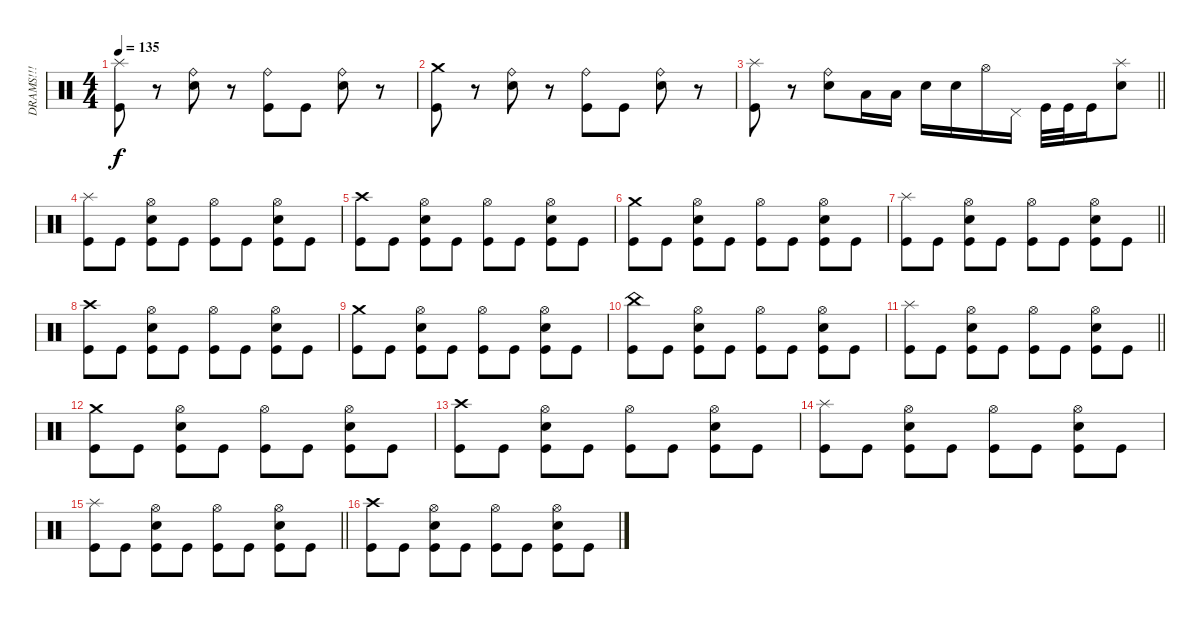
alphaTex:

\track ("DRAMS!!!" "DRAMS!!!") {instrument percussion}
\staff {score}
\articulation defaults
\ts (4 4)
\tempo 135
\clef neutral
\ks c
("Kick (hit)" "Splash (hit)").8{dy f} r.8 ("Electric Snare (hit)" "Ride (bell)").8 r.8 ("Kick (hit)" "Ride (bell)").8 "Kick (hit)".8 ("Electric Snare (hit)" "Ride (bell)").8 r.8 |
("Kick (hit)" "Crash medium (hit)").8 r.8 ("Electric Snare (hit)" "Ride (bell)").8 r.8 ("Kick (hit)" "Ride (bell)").8 "Kick (hit)".8 ("Electric Snare (hit)" "Ride (bell)").8 r.8 |
\barLineRight lightlight
("Kick (hit)" "Splash (hit)").8 r.8 ("Electric Snare (hit)" "Ride (bell)").8 "Low Tom (hit)".16 "Low Tom (hit)".16 "Electric Snare (hit)".16 "Electric Snare (hit)".16 "Hi-Hat (open)".16 "Pedal Hi-Hat (hit)".16 "Kick (hit)".32 "Kick (hit)".32 "Kick (hit)".16 ("Electric Snare (hit)" "Splash (hit)").8 |
("Kick (hit)" "Splash (hit)").8 "Kick (hit)".8 ("Kick (hit)" "Electric Snare (hit)" "Hi-Hat (open)").8 "Kick (hit)".8 ("Kick (hit)" "Hi-Hat (open)").8 "Kick (hit)".8 ("Kick (hit)" "Electric Snare (hit)" "Hi-Hat (open)").8 "Kick (hit)".8 |
("Kick (hit)" "Crash high (hit)").8 "Kick (hit)".8 ("Kick (hit)" "Electric Snare (hit)" "Hi-Hat (open)").8 "Kick (hit)".8 ("Kick (hit)" "Hi-Hat (open)").8 "Kick (hit)".8 ("Kick (hit)" "Electric Snare (hit)" "Hi-Hat (open)").8 "Kick (hit)".8 |
("Kick (hit)" "Crash medium (hit)").8 "Kick (hit)".8 ("Kick (hit)" "Electric Snare (hit)" "Hi-Hat (open)").8 "Kick (hit)".8 ("Kick (hit)" "Hi-Hat (open)").8 "Kick (hit)".8 ("Kick (hit)" "Electric Snare (hit)" "Hi-Hat (open)").8 "Kick (hit)".8 |
\barLineRight lightlight
("Kick (hit)" "Splash (hit)").8 "Kick (hit)".8 ("Kick (hit)" "Electric Snare (hit)" "Hi-Hat (open)").8 "Kick (hit)".8 ("Kick (hit)" "Hi-Hat (open)").8 "Kick (hit)".8 ("Kick (hit)" "Electric Snare (hit)" "Hi-Hat (open)").8 "Kick (hit)".8 |
("Kick (hit)" "Crash high (hit)").8 "Kick (hit)".8 ("Kick (hit)" "Electric Snare (hit)" "Hi-Hat (open)").8 "Kick (hit)".8 ("Kick (hit)" "Hi-Hat (open)").8 "Kick (hit)".8 ("Kick (hit)" "Electric Snare (hit)" "Hi-Hat (open)").8 "Kick (hit)".8 |
("Kick (hit)" "Crash medium (hit)").8 "Kick (hit)".8 ("Kick (hit)" "Electric Snare (hit)" "Hi-Hat (open)").8 "Kick (hit)".8 ("Kick (hit)" "Hi-Hat (open)").8 "Kick (hit)".8 ("Kick (hit)" "Electric Snare (hit)" "Hi-Hat (open)").8 "Kick (hit)".8 |
("Kick (hit)" "China (hit)").8 "Kick (hit)".8 ("Kick (hit)" "Electric Snare (hit)" "Hi-Hat (open)").8 "Kick (hit)".8 ("Kick (hit)" "Hi-Hat (open)").8 "Kick (hit)".8 ("Kick (hit)" "Electric Snare (hit)" "Hi-Hat (open)").8 "Kick (hit)".8 |
\barLineRight lightlight
("Kick (hit)" "Splash (hit)").8 "Kick (hit)".8 ("Kick (hit)" "Electric Snare (hit)" "Hi-Hat (open)").8 "Kick (hit)".8 ("Kick (hit)" "Hi-Hat (open)").8 "Kick (hit)".8 ("Kick (hit)" "Electric Snare (hit)" "Hi-Hat (open)").8 "Kick (hit)".8 |
("Kick (hit)" "Crash medium (hit)").8 "Kick (hit)".8 ("Kick (hit)" "Electric Snare (hit)" "Hi-Hat (open)").8 "Kick (hit)".8 ("Kick (hit)" "Hi-Hat (open)").8 "Kick (hit)".8 ("Kick (hit)" "Electric Snare (hit)" "Hi-Hat (open)").8 "Kick (hit)".8 |
("Kick (hit)" "Crash high (hit)").8 "Kick (hit)".8 ("Kick (hit)" "Electric Snare (hit)" "Hi-Hat (open)").8 "Kick (hit)".8 ("Kick (hit)" "Hi-Hat (open)").8 "Kick (hit)".8 ("Kick (hit)" "Electric Snare (hit)" "Hi-Hat (open)").8 "Kick (hit)".8 |
("Kick (hit)" "Splash (hit)").8 "Kick (hit)".8 ("Kick (hit)" "Electric Snare (hit)" "Hi-Hat (open)").8 "Kick (hit)".8 ("Kick (hit)" "Hi-Hat (open)").8 "Kick (hit)".8 ("Kick (hit)" "Electric Snare (hit)" "Hi-Hat (open)").8 "Kick (hit)".8 |
\barLineRight lightlight
("Kick (hit)" "Splash (hit)").8 "Kick (hit)".8 ("Kick (hit)" "Electric Snare (hit)" "Hi-Hat (open)").8 "Kick (hit)".8 ("Kick (hit)" "Hi-Hat (open)").8 "Kick (hit)".8 ("Kick (hit)" "Electric Snare (hit)" "Hi-Hat (open)").8 "Kick (hit)".8 |
("Kick (hit)" "Crash high (hit)").8 "Kick (hit)".8 ("Kick (hit)" "Electric Snare (hit)" "Hi-Hat (open)").8 "Kick (hit)".8 ("Kick (hit)" "Hi-Hat (open)").8 "Kick (hit)".8 ("Kick (hit)" "Electric Snare (hit)" "Hi-Hat (open)").8 "Kick (hit)".8
